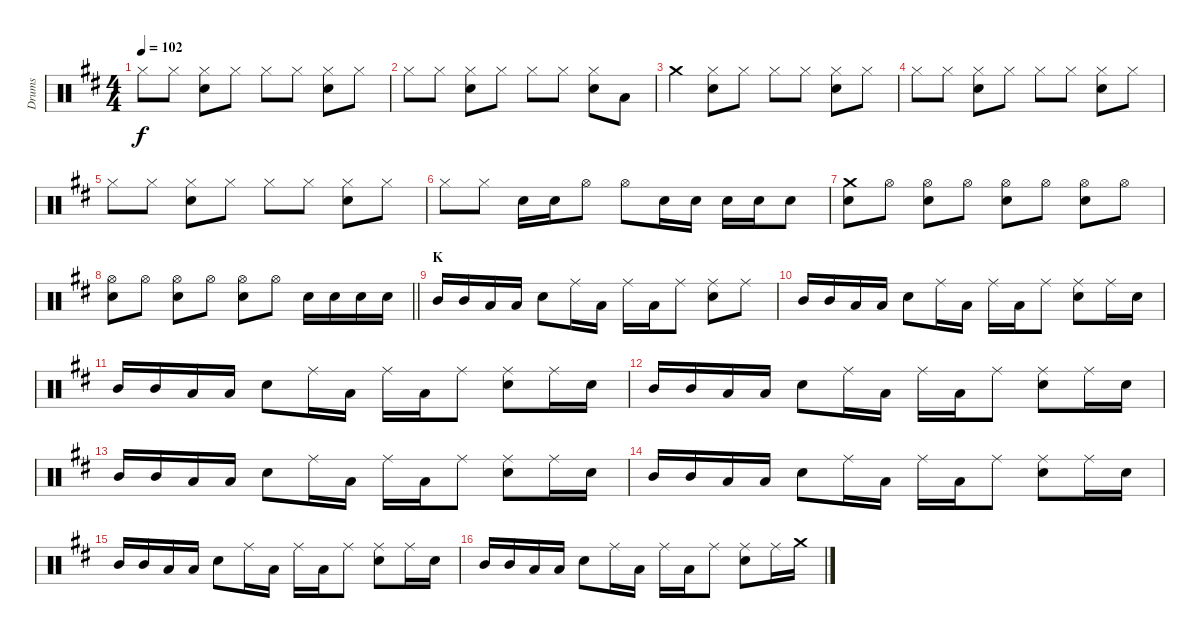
\track ("Drums" "Drums") {instrument percussion}
\staff {score}
\articulation defaults
\ts (4 4)
\tempo 102
\clef neutral
\ks d "Hi-Hat (closed)".8{dy f} "Hi-Hat (closed)".8
("Hi-Hat (closed)" "Snare (hit) 2").8 "Hi-Hat (closed)".8 "Hi-Hat (closed)".8 "Hi-Hat (closed)".8 ("Hi-Hat (closed)" "Snare (hit) 2").8 "Hi-Hat (closed)".8 |
"Hi-Hat (closed)".8 "Hi-Hat (closed)".8 ("Hi-Hat (closed)" "Snare (hit) 2").8 "Hi-Hat (closed)".8 "Hi-Hat (closed)".8 "Hi-Hat (closed)".8 ("Hi-Hat (closed)" "Snare (hit) 2").8 "Low Tom (hit)".8 |
"Crash medium (hit)".4 ("Hi-Hat (closed)" "Snare (hit) 2").8 "Hi-Hat (closed)".8 "Hi-Hat (closed)".8 "Hi-Hat (closed)".8 ("Hi-Hat (closed)" "Snare (hit) 2").8 "Hi-Hat (closed)".8 |
"Hi-Hat (closed)".8 "Hi-Hat (closed)".8 ("Hi-Hat (closed)" "Snare (hit) 2").8 "Hi-Hat (closed)".8 "Hi-Hat (closed)".8 "Hi-Hat (closed)".8 ("Hi-Hat (closed)" "Snare (hit) 2").8 "Hi-Hat (closed)".8 |
"Hi-Hat (closed)".8 "Hi-Hat (closed)".8 ("Hi-Hat (closed)" "Snare (hit) 2").8 "Hi-Hat (closed)".8 "Hi-Hat (closed)".8 "Hi-Hat (closed)".8 ("Hi-Hat (closed)" "Snare (hit) 2").8 "Hi-Hat (closed)".8 |
"Hi-Hat (closed)".8 "Hi-Hat (closed)".8 "Snare (hit) 2".16 "Snare (hit) 2".16 "Hi-Hat (open)".8 "Hi-Hat (open)".8 "Snare (hit) 2".16 "Snare (hit) 2".16 "Snare (hit) 2".16 "Snare (hit) 2".16 "Snare (hit) 2".8 |
("Crash medium (hit)" "Snare (hit) 2").8 "Hi-Hat (open)".8 ("Hi-Hat (open)" "Snare (hit) 2").8 "Hi-Hat (open)".8 ("Hi-Hat (open)" "Snare (hit) 2").8 "Hi-Hat (open)".8 ("Hi-Hat (open)" "Snare (hit) 2").8 "Hi-Hat (open)".8 |
\barLineRight lightlight
("Hi-Hat (open)" "Snare (hit) 2").8 "Hi-Hat (open)".8 ("Hi-Hat (open)" "Snare (hit) 2").8 "Hi-Hat (open)".8 ("Hi-Hat (open)" "Snare (hit) 2").8 "Hi-Hat (open)".8 "Snare (hit) 2".16 "Snare (hit) 2".16 "Snare (hit) 2".16 "Snare (hit) 2".16 |
\section ("" "K")
"Mid Tom (hit)".16 "Mid Tom (hit)".16 "Low Tom (hit)".16 "Low Tom (hit)".16 "Snare (hit) 2".8 "Ride (middle)".16 "Low Tom (hit)".16 "Ride (middle)".16 "Low Tom (hit)".16 "Ride (middle)".8 ("Ride (middle)" "Snare (hit) 2").8 "Ride (middle)".8 |
"Mid Tom (hit)".16 "Mid Tom (hit)".16 "Low Tom (hit)".16 "Low Tom (hit)".16 "Snare (hit) 2".8 "Ride (middle)".16 "Low Tom (hit)".16 "Ride (middle)".16 "Low Tom (hit)".16 "Ride (middle)".8 ("Ride (middle)" "Snare (hit) 2").8 "Ride (middle)".16 "Snare (hit) 2".16 |
"Mid Tom (hit)".16 "Mid Tom (hit)".16 "Low Tom (hit)".16 "Low Tom (hit)".16 "Snare (hit) 2".8 "Ride (middle)".16 "Low Tom (hit)".16 "Ride (middle)".16 "Low Tom (hit)".16 "Ride (middle)".8 ("Ride (middle)" "Snare (hit) 2").8 "Ride (middle)".16 "Snare (hit) 2".16 |
"Mid Tom (hit)".16 "Mid Tom (hit)".16 "Low Tom (hit)".16 "Low Tom (hit)".16 "Snare (hit) 2".8 "Ride (middle)".16 "Low Tom (hit)".16 "Ride (middle)".16 "Low Tom (hit)".16 "Ride (middle)".8 ("Ride (middle)" "Snare (hit) 2").8 "Ride (middle)".16 "Snare (hit) 2".16 |
"Mid Tom (hit)".16 "Mid Tom (hit)".16 "Low Tom (hit)".16 "Low Tom (hit)".16 "Snare (hit) 2".8 "Ride (middle)".16 "Low Tom (hit)".16 "Ride (middle)".16 "Low Tom (hit)".16 "Ride (middle)".8 ("Ride (middle)" "Snare (hit) 2").8 "Ride (middle)".16 "Snare (hit) 2".16 |
"Mid Tom (hit)".16 "Mid Tom (hit)".16 "Low Tom (hit)".16 "Low Tom (hit)".16 "Snare (hit) 2".8 "Ride (middle)".16 "Low Tom (hit)".16 "Ride (middle)".16 "Low Tom (hit)".16 "Ride (middle)".8 ("Ride (middle)" "Snare (hit) 2").8 "Ride (middle)".16 "Snare (hit) 2".16 |
"Mid Tom (hit)".16 "Mid Tom (hit)".16 "Low Tom (hit)".16 "Low Tom (hit)".16 "Snare (hit) 2".8 "Ride (middle)".16 "Low Tom (hit)".16 "Ride (middle)".16 "Low Tom (hit)".16 "Ride (middle)".8 ("Ride (middle)" "Snare (hit) 2").8 "Ride (middle)".16 "Snare (hit) 2".16 |
"Mid Tom (hit)".16 "Mid Tom (hit)".16 "Low Tom (hit)".16 "Low Tom (hit)".16 "Snare (hit) 2".8 "Ride (middle)".16 "Low Tom (hit)".16 "Ride (middle)".16 "Low Tom (hit)".16 "Ride (middle)".8 ("Ride (middle)" "Snare (hit) 2").8 "Ride (middle)".16 "Crash medium (hit)".16
